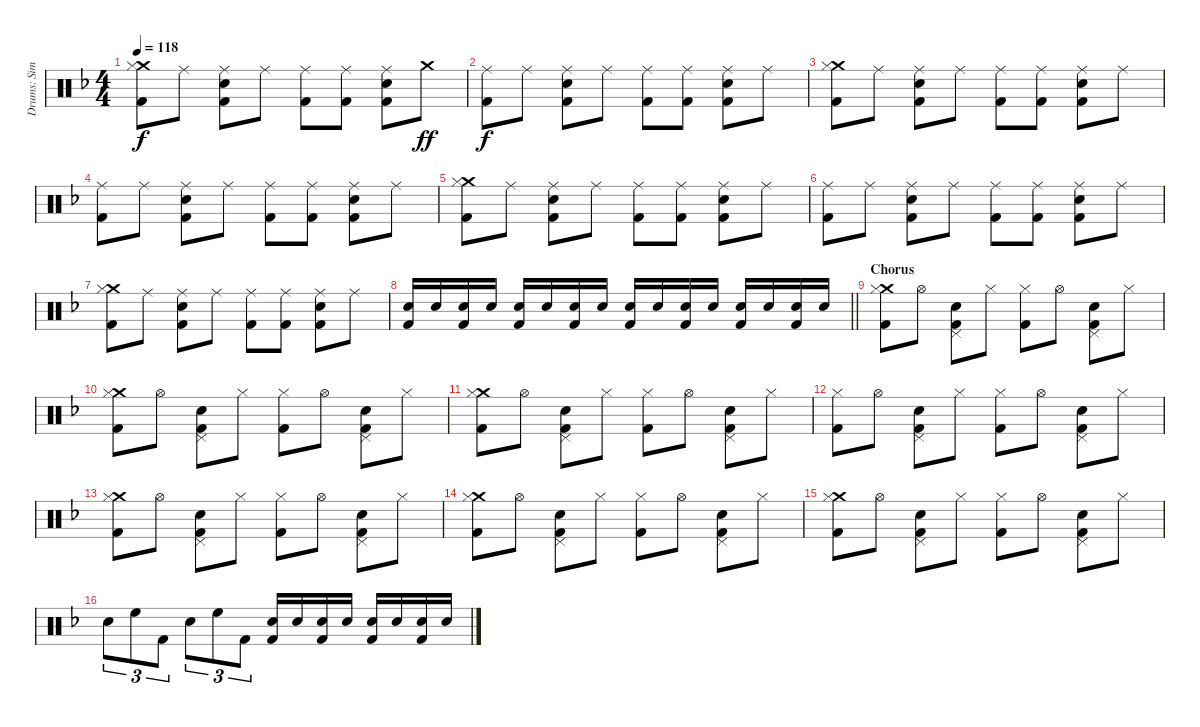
\track ("Drums: Simon Kirke" "Drums: Sim") {instrument percussion}
\staff {score}
\articulation defaults
\ts (4 4)
\tempo 118
\clef neutral
\ks f
("Crash medium (hit)" "Hi-Hat (closed)" "Kick (hit) 2").8{dy f} "Ride (middle)".8 ("Ride (middle)" "Snare (hit) 2" "Kick (hit) 2").8 "Ride (middle)".8 ("Ride (middle)" "Kick (hit) 2").8 ("Ride (middle)" "Kick (hit) 2").8 ("Ride (middle)" "Snare (hit) 2" "Kick (hit) 2").8 "Crash medium (hit)".8{dy ff} |
("Ride (middle)" "Kick (hit) 2").8{dy f} "Ride (middle)".8 ("Ride (middle)" "Snare (hit) 2" "Kick (hit) 2").8 "Ride (middle)".8 ("Ride (middle)" "Kick (hit) 2").8 ("Ride (middle)" "Kick (hit) 2").8 ("Ride (middle)" "Snare (hit) 2" "Kick (hit) 2").8 "Ride (middle)".8 |
("Crash medium (hit)" "Hi-Hat (closed)" "Kick (hit) 2").8 "Ride (middle)".8 ("Ride (middle)" "Snare (hit) 2" "Kick (hit) 2").8 "Ride (middle)".8 ("Ride (middle)" "Kick (hit) 2").8 ("Ride (middle)" "Kick (hit) 2").8 ("Ride (middle)" "Snare (hit) 2" "Kick (hit) 2").8 "Ride (middle)".8 |
("Ride (middle)" "Kick (hit) 2").8 "Ride (middle)".8 ("Ride (middle)" "Snare (hit) 2" "Kick (hit) 2").8 "Ride (middle)".8 ("Ride (middle)" "Kick (hit) 2").8 ("Ride (middle)" "Kick (hit) 2").8 ("Ride (middle)" "Snare (hit) 2" "Kick (hit) 2").8 "Ride (middle)".8 |
("Crash medium (hit)" "Hi-Hat (closed)" "Kick (hit) 2").8 "Ride (middle)".8 ("Ride (middle)" "Snare (hit) 2" "Kick (hit) 2").8 "Ride (middle)".8 ("Ride (middle)" "Kick (hit) 2").8 ("Ride (middle)" "Kick (hit) 2").8 ("Ride (middle)" "Snare (hit) 2" "Kick (hit) 2").8 "Ride (middle)".8 |
("Ride (middle)" "Kick (hit) 2").8 "Ride (middle)".8 ("Ride (middle)" "Snare (hit) 2" "Kick (hit) 2").8 "Ride (middle)".8 ("Ride (middle)" "Kick (hit) 2").8 ("Ride (middle)" "Kick (hit) 2").8 ("Ride (middle)" "Snare (hit) 2" "Kick (hit) 2").8 "Ride (middle)".8 |
("Crash medium (hit)" "Hi-Hat (closed)" "Kick (hit) 2").8 "Ride (middle)".8 ("Ride (middle)" "Snare (hit) 2" "Kick (hit) 2").8 "Ride (middle)".8 ("Ride (middle)" "Kick (hit) 2").8 ("Ride (middle)" "Kick (hit) 2").8 ("Ride (middle)" "Snare (hit) 2" "Kick (hit) 2").8 "Ride (middle)".8 |
\barLineRight lightlight
("Snare (hit) 2" "Kick (hit) 2").16 "Snare (hit) 2".16 ("Snare (hit) 2" "Kick (hit) 2").16 "Snare (hit) 2".16 ("Snare (hit) 2" "Kick (hit) 2").16 "Snare (hit) 2".16 ("Snare (hit) 2" "Kick (hit) 2").16 "Snare (hit) 2".16 ("Snare (hit) 2" "Kick (hit) 2").16 "Snare (hit) 2".16 ("Snare (hit) 2" "Kick (hit) 2").16 "Snare (hit) 2".16 ("Snare (hit) 2" "Kick (hit) 2").16 "Snare (hit) 2".16 ("Snare (hit) 2" "Kick (hit) 2").16 "Snare (hit) 2".16 |
\section ("" "Chorus")
("Crash medium (hit)" "Hi-Hat (closed)" "Kick (hit) 2").8 "Hi-Hat (open)".8 ("Pedal Hi-Hat (hit)" "Snare (hit) 2" "Kick (hit) 2").8 "Hi-Hat (closed)".8 ("Hi-Hat (closed)" "Kick (hit) 2").8 "Hi-Hat (open)".8 ("Pedal Hi-Hat (hit)" "Snare (hit) 2" "Kick (hit) 2").8 "Hi-Hat (closed)".8 |
("Crash medium (hit)" "Hi-Hat (closed)" "Kick (hit) 2").8 "Hi-Hat (open)".8 ("Pedal Hi-Hat (hit)" "Snare (hit) 2" "Kick (hit) 2").8 "Hi-Hat (closed)".8 ("Hi-Hat (closed)" "Kick (hit) 2").8 "Hi-Hat (open)".8 ("Pedal Hi-Hat (hit)" "Snare (hit) 2" "Kick (hit) 2").8 "Hi-Hat (closed)".8 |
("Crash medium (hit)" "Hi-Hat (closed)" "Kick (hit) 2").8 "Hi-Hat (open)".8 ("Pedal Hi-Hat (hit)" "Snare (hit) 2" "Kick (hit) 2").8 "Hi-Hat (closed)".8 ("Hi-Hat (closed)" "Kick (hit) 2").8 "Hi-Hat (open)".8 ("Pedal Hi-Hat (hit)" "Snare (hit) 2" "Kick (hit) 2").8 "Hi-Hat (closed)".8 |
("Hi-Hat (closed)" "Kick (hit) 2").8 "Hi-Hat (open)".8 ("Pedal Hi-Hat (hit)" "Snare (hit) 2" "Kick (hit) 2").8 "Hi-Hat (closed)".8 ("Hi-Hat (closed)" "Kick (hit) 2").8 "Hi-Hat (open)".8 ("Pedal Hi-Hat (hit)" "Snare (hit) 2" "Kick (hit) 2").8 "Hi-Hat (closed)".8 |
("Crash medium (hit)" "Hi-Hat (closed)" "Kick (hit) 2").8 "Hi-Hat (open)".8 ("Pedal Hi-Hat (hit)" "Snare (hit) 2" "Kick (hit) 2").8 "Hi-Hat (closed)".8 ("Hi-Hat (closed)" "Kick (hit) 2").8 "Hi-Hat (open)".8 ("Pedal Hi-Hat (hit)" "Snare (hit) 2" "Kick (hit) 2").8 "Hi-Hat (closed)".8 |
("Crash medium (hit)" "Hi-Hat (closed)" "Kick (hit) 2").8 "Hi-Hat (open)".8 ("Pedal Hi-Hat (hit)" "Snare (hit) 2" "Kick (hit) 2").8 "Hi-Hat (closed)".8 ("Hi-Hat (closed)" "Kick (hit) 2").8 "Hi-Hat (open)".8 ("Pedal Hi-Hat (hit)" "Snare (hit) 2" "Kick (hit) 2").8 "Hi-Hat (closed)".8 |
("Crash medium (hit)" "Hi-Hat (closed)" "Kick (hit) 2").8 "Hi-Hat (open)".8 ("Pedal Hi-Hat (hit)" "Snare (hit) 2" "Kick (hit) 2").8 "Hi-Hat (closed)".8 ("Hi-Hat (closed)" "Kick (hit) 2").8 "Hi-Hat (open)".8 ("Pedal Hi-Hat (hit)" "Snare (hit) 2" "Kick (hit) 2").8 "Hi-Hat (closed)".8 |
"Snare (hit) 2".8{tu (3 2)} "High Floor Tom (hit)".8{tu (3 2)} "Kick (hit) 2".8{tu (3 2)} "Snare (hit) 2".8{tu (3 2)} "High Floor Tom (hit)".8{tu (3 2)} "Kick (hit) 2".8{tu (3 2)} ("Snare (hit) 2" "Kick (hit) 2").16 "Snare (hit) 2".16 ("Snare (hit) 2" "Kick (hit) 2").16 "Snare (hit) 2".16 ("Snare (hit) 2" "Kick (hit) 2").16 "Snare (hit) 2".16 ("Snare (hit) 2" "Kick (hit) 2").16 "Snare (hit) 2".16
